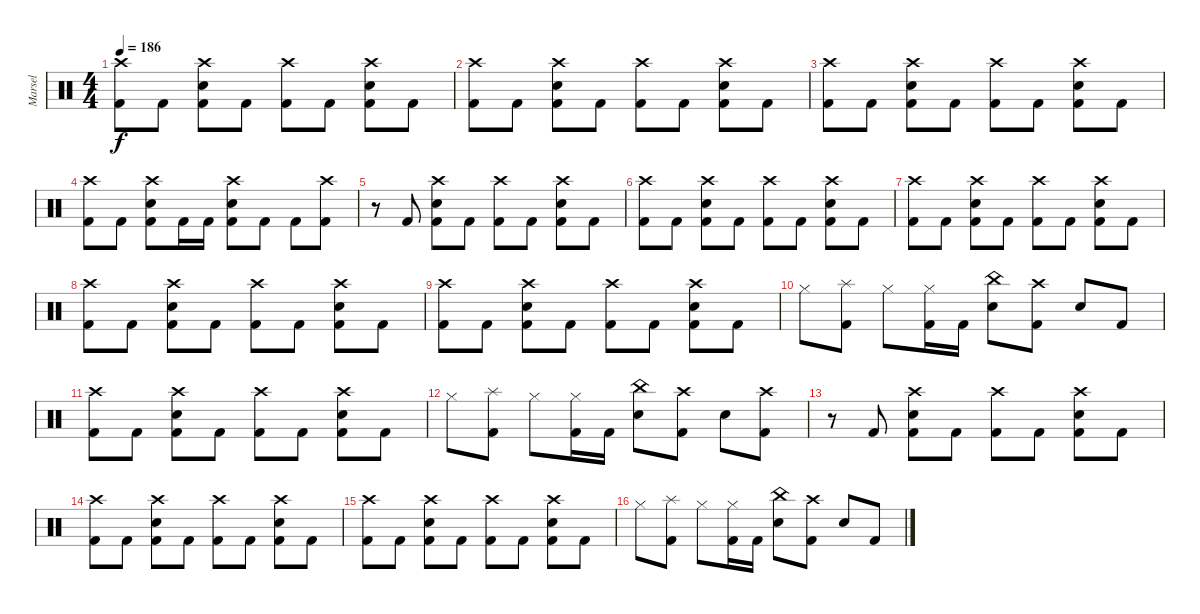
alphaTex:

\track ("Marsel" "Marsel") {mute instrument percussion}
\staff {score}
\articulation defaults
\ts (4 4)
\tempo 186
\clef neutral
\ks c
("Crash high (hit)" "Kick (hit) 2").8{dy f} "Kick (hit) 2".8 ("Crash high (hit)" "Snare (hit) 2" "Kick (hit) 2").8 "Kick (hit) 2".8 ("Crash high (hit)" "Kick (hit) 2").8 "Kick (hit) 2".8 ("Crash high (hit)" "Snare (hit) 2" "Kick (hit) 2").8 "Kick (hit) 2".8 |
("Crash high (hit)" "Kick (hit) 2").8 "Kick (hit) 2".8 ("Crash high (hit)" "Snare (hit) 2" "Kick (hit) 2").8 "Kick (hit) 2".8 ("Crash high (hit)" "Kick (hit) 2").8 "Kick (hit) 2".8 ("Crash high (hit)" "Snare (hit) 2" "Kick (hit) 2").8 "Kick (hit) 2".8 |
("Crash high (hit)" "Kick (hit) 2").8 "Kick (hit) 2".8 ("Crash high (hit)" "Snare (hit) 2" "Kick (hit) 2").8 "Kick (hit) 2".8 ("Crash high (hit)" "Kick (hit) 2").8 "Kick (hit) 2".8 ("Crash high (hit)" "Snare (hit) 2" "Kick (hit) 2").8 "Kick (hit) 2".8 |
("Crash high (hit)" "Kick (hit) 2").8 "Kick (hit) 2".8 ("Crash high (hit)" "Snare (hit) 2" "Kick (hit) 2").8 "Kick (hit) 2".16 "Kick (hit) 2".16 ("Crash high (hit)" "Snare (hit) 2" "Kick (hit) 2").8 "Kick (hit) 2".8 "Kick (hit) 2".8 ("Crash high (hit)" "Kick (hit) 2").8 |
r.8 "Kick (hit) 2".8 ("Crash high (hit)" "Snare (hit) 2" "Kick (hit) 2").8 "Kick (hit) 2".8 ("Crash high (hit)" "Kick (hit) 2").8 "Kick (hit) 2".8 ("Crash high (hit)" "Snare (hit) 2" "Kick (hit) 2").8 "Kick (hit) 2".8 |
("Crash high (hit)" "Kick (hit) 2").8 "Kick (hit) 2".8 ("Crash high (hit)" "Snare (hit) 2" "Kick (hit) 2").8 "Kick (hit) 2".8 ("Crash high (hit)" "Kick (hit) 2").8 "Kick (hit) 2".8 ("Crash high (hit)" "Snare (hit) 2" "Kick (hit) 2").8 "Kick (hit) 2".8 |
("Crash high (hit)" "Kick (hit) 2").8 "Kick (hit) 2".8 ("Crash high (hit)" "Snare (hit) 2" "Kick (hit) 2").8 "Kick (hit) 2".8 ("Crash high (hit)" "Kick (hit) 2").8 "Kick (hit) 2".8 ("Crash high (hit)" "Snare (hit) 2" "Kick (hit) 2").8 "Kick (hit) 2".8 |
("Crash high (hit)" "Kick (hit) 2").8 "Kick (hit) 2".8 ("Crash high (hit)" "Snare (hit) 2" "Kick (hit) 2").8 "Kick (hit) 2".8 ("Crash high (hit)" "Kick (hit) 2").8 "Kick (hit) 2".8 ("Crash high (hit)" "Snare (hit) 2" "Kick (hit) 2").8 "Kick (hit) 2".8 |
("Crash high (hit)" "Kick (hit) 2").8 "Kick (hit) 2".8 ("Crash high (hit)" "Snare (hit) 2" "Kick (hit) 2").8 "Kick (hit) 2".8 ("Crash high (hit)" "Kick (hit) 2").8 "Kick (hit) 2".8 ("Crash high (hit)" "Snare (hit) 2" "Kick (hit) 2").8 "Kick (hit) 2".8 |
"Hi-Hat (closed)".8 ("Splash (hit)" "Kick (hit) 2").8 "Hi-Hat (closed)".8 ("Hi-Hat (closed)" "Kick (hit) 2").16 "Kick (hit) 2".16 ("China (hit)" "Snare (hit) 2").8 ("Crash high (hit)" "Kick (hit) 2").8 "Snare (hit) 2".8 "Kick (hit) 2".8 |
("Crash high (hit)" "Kick (hit) 2").8 "Kick (hit) 2".8 ("Crash high (hit)" "Snare (hit) 2" "Kick (hit) 2").8 "Kick (hit) 2".8 ("Crash high (hit)" "Kick (hit) 2").8 "Kick (hit) 2".8 ("Crash high (hit)" "Snare (hit) 2" "Kick (hit) 2").8 "Kick (hit) 2".8 |
"Hi-Hat (closed)".8 ("Splash (hit)" "Kick (hit) 2").8 "Hi-Hat (closed)".8 ("Hi-Hat (closed)" "Kick (hit) 2").16 "Kick (hit) 2".16 ("China (hit)" "Snare (hit) 2").8 ("Crash high (hit)" "Kick (hit) 2").8 "Snare (hit) 2".8 ("Crash high (hit)" "Kick (hit) 2").8 |
r.8 "Kick (hit) 2".8 ("Crash high (hit)" "Snare (hit) 2" "Kick (hit) 2").8 "Kick (hit) 2".8 ("Crash high (hit)" "Kick (hit) 2").8 "Kick (hit) 2".8 ("Crash high (hit)" "Snare (hit) 2" "Kick (hit) 2").8 "Kick (hit) 2".8 |
("Crash high (hit)" "Kick (hit) 2").8 "Kick (hit) 2".8 ("Crash high (hit)" "Snare (hit) 2" "Kick (hit) 2").8 "Kick (hit) 2".8 ("Crash high (hit)" "Kick (hit) 2").8 "Kick (hit) 2".8 ("Crash high (hit)" "Snare (hit) 2" "Kick (hit) 2").8 "Kick (hit) 2".8 |
("Crash high (hit)" "Kick (hit) 2").8 "Kick (hit) 2".8 ("Crash high (hit)" "Snare (hit) 2" "Kick (hit) 2").8 "Kick (hit) 2".8 ("Crash high (hit)" "Kick (hit) 2").8 "Kick (hit) 2".8 ("Crash high (hit)" "Snare (hit) 2" "Kick (hit) 2").8 "Kick (hit) 2".8 |
"Hi-Hat (closed)".8 ("Splash (hit)" "Kick (hit) 2").8 "Hi-Hat (closed)".8 ("Hi-Hat (closed)" "Kick (hit) 2").16 "Kick (hit) 2".16 ("China (hit)" "Snare (hit) 2").8 ("Crash high (hit)" "Kick (hit) 2").8 "Snare (hit) 2".8 "Kick (hit) 2".8
